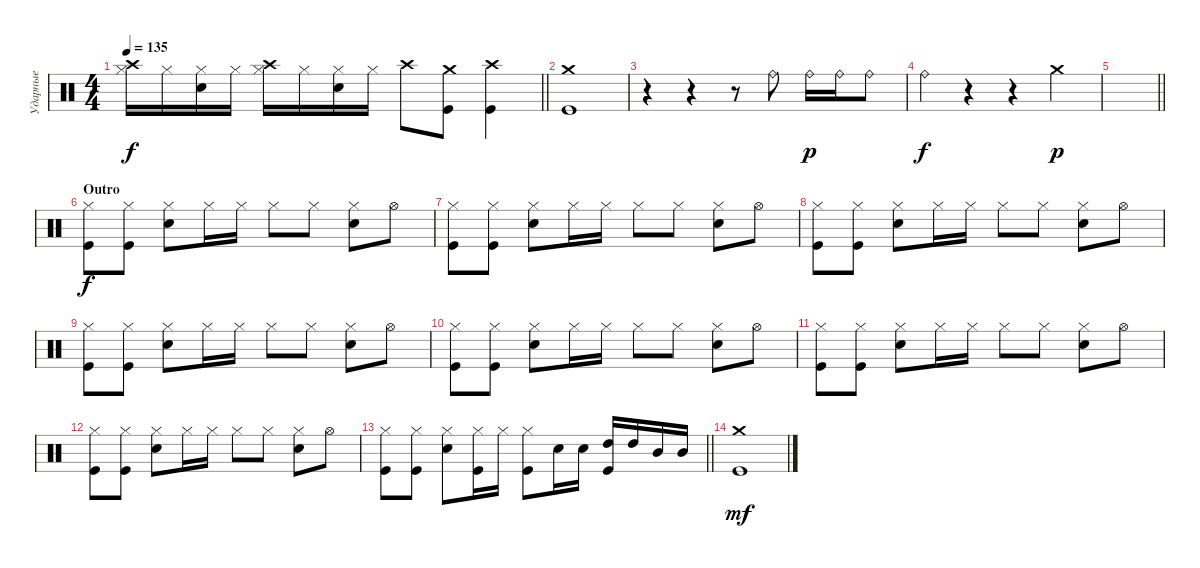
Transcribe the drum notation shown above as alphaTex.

\track ("Ударные" "Ударные") {instrument percussion}
\staff {score}
\articulation defaults
\ts (4 4)
\tempo 135
\clef neutral
\barLineRight lightlight
\ks c
("Crash high (hit)" "Hi-Hat (closed)").16{dy f} "Hi-Hat (closed)".16 ("Hi-Hat (closed)" "Electric Snare (hit)").16 "Hi-Hat (closed)".16 ("Crash high (hit)" "Hi-Hat (closed)").16 "Hi-Hat (closed)".16 ("Hi-Hat (closed)" "Electric Snare (hit)").16 "Hi-Hat (closed)".16 "Crash high (hit)".8 ("Crash medium (hit)" "Kick (hit)").8 ("Crash high (hit)" "Kick (hit)").4 |
\section ("" " ")
("Crash medium (hit)" "Kick (hit)").1 |
r.4 r.4 r.8 "Ride (bell)".8 "Ride (bell)".16{dy p} "Ride (bell)".16 "Ride (bell)".8 |
"Ride (bell)".4{dy f} r.4 r.4 "Crash medium (hit)".4{dy p} |
\barLineRight lightlight
|
\section ("" "Outro")
("Hi-Hat (closed)" "Kick (hit)").8{dy f} ("Hi-Hat (closed)" "Kick (hit)").8 ("Hi-Hat (closed)" "Electric Snare (hit)").8 "Hi-Hat (closed)".16 "Hi-Hat (closed)".16 "Hi-Hat (closed)".8 "Hi-Hat (closed)".8 ("Hi-Hat (closed)" "Electric Snare (hit)").8 "Hi-Hat (open)".8 |
("Hi-Hat (closed)" "Kick (hit)").8 ("Hi-Hat (closed)" "Kick (hit)").8 ("Hi-Hat (closed)" "Electric Snare (hit)").8 "Hi-Hat (closed)".16 "Hi-Hat (closed)".16 "Hi-Hat (closed)".8 "Hi-Hat (closed)".8 ("Hi-Hat (closed)" "Electric Snare (hit)").8 "Hi-Hat (open)".8 |
("Hi-Hat (closed)" "Kick (hit)").8 ("Hi-Hat (closed)" "Kick (hit)").8 ("Hi-Hat (closed)" "Electric Snare (hit)").8 "Hi-Hat (closed)".16 "Hi-Hat (closed)".16 "Hi-Hat (closed)".8 "Hi-Hat (closed)".8 ("Hi-Hat (closed)" "Electric Snare (hit)").8 "Hi-Hat (open)".8 |
("Hi-Hat (closed)" "Kick (hit)").8 ("Hi-Hat (closed)" "Kick (hit)").8 ("Hi-Hat (closed)" "Electric Snare (hit)").8 "Hi-Hat (closed)".16 "Hi-Hat (closed)".16 "Hi-Hat (closed)".8 "Hi-Hat (closed)".8 ("Hi-Hat (closed)" "Electric Snare (hit)").8 "Hi-Hat (open)".8 |
("Hi-Hat (closed)" "Kick (hit)").8 ("Hi-Hat (closed)" "Kick (hit)").8 ("Hi-Hat (closed)" "Electric Snare (hit)").8 "Hi-Hat (closed)".16 "Hi-Hat (closed)".16 "Hi-Hat (closed)".8 "Hi-Hat (closed)".8 ("Hi-Hat (closed)" "Electric Snare (hit)").8 "Hi-Hat (open)".8 |
("Hi-Hat (closed)" "Kick (hit)").8 ("Hi-Hat (closed)" "Kick (hit)").8 ("Hi-Hat (closed)" "Electric Snare (hit)").8 "Hi-Hat (closed)".16 "Hi-Hat (closed)".16 "Hi-Hat (closed)".8 "Hi-Hat (closed)".8 ("Hi-Hat (closed)" "Electric Snare (hit)").8 "Hi-Hat (open)".8 |
("Hi-Hat (closed)" "Kick (hit)").8 ("Hi-Hat (closed)" "Kick (hit)").8 ("Hi-Hat (closed)" "Electric Snare (hit)").8 "Hi-Hat (closed)".16 "Hi-Hat (closed)".16 "Hi-Hat (closed)".8 "Hi-Hat (closed)".8 ("Hi-Hat (closed)" "Electric Snare (hit)").8 "Hi-Hat (open)".8 |
\barLineRight lightlight
("Hi-Hat (closed)" "Kick (hit)").8 ("Hi-Hat (closed)" "Kick (hit)").8 ("Hi-Hat (closed)" "Electric Snare (hit)").8 ("Hi-Hat (closed)" "Kick (hit)").16 "Hi-Hat (closed)".16 ("Hi-Hat (closed)" "Kick (hit)").8 "Electric Snare (hit)".16 "Electric Snare (hit)".16 ("High Tom (hit)" "Kick (hit)").16 "High Tom (hit)".16 "Mid Tom (hit)".16 "Mid Tom (hit)".16 |
("Crash medium (hit)" "Kick (hit)").1{dy mf}
